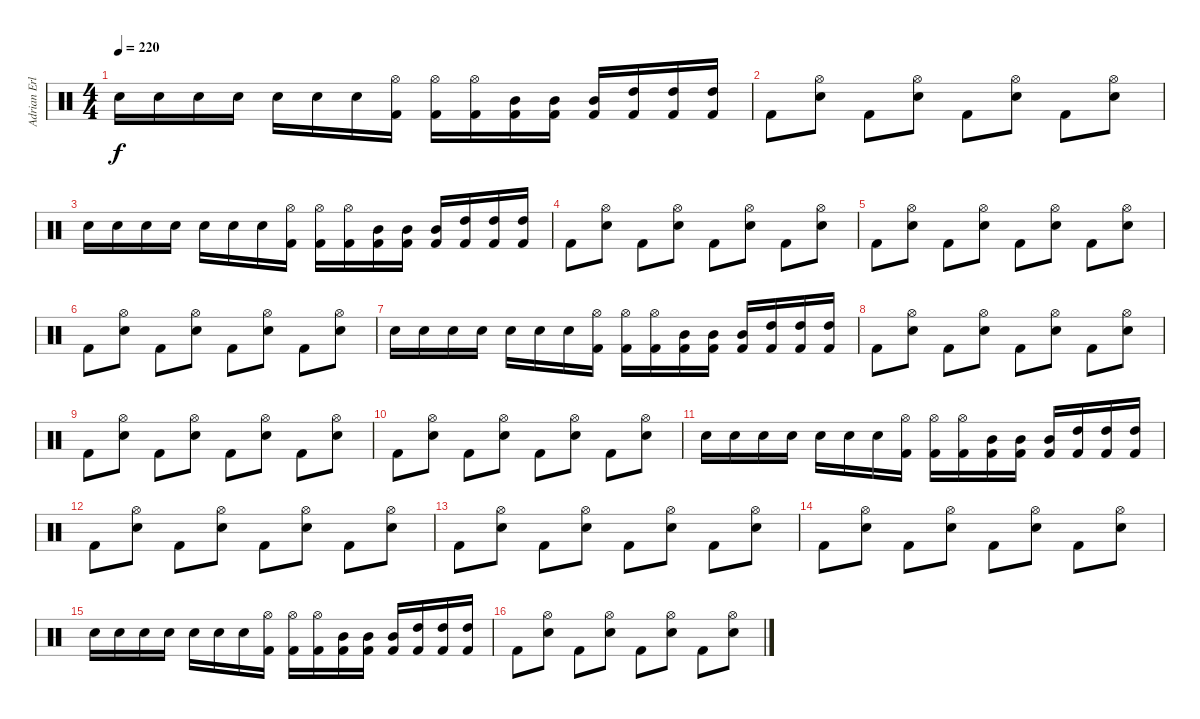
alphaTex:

\track ("Adrian Erlandsson" "Adrian Erl") {instrument percussion}
\staff {score}
\articulation defaults
\ts (4 4)
\tempo 220
\clef neutral
\ks c "Snare (hit) 2".16{dy f} "Snare (hit) 2".16 "Snare (hit) 2".16 "Snare (hit) 2".16 "Snare (hit) 2".16 "Snare (hit) 2".16 "Snare (hit) 2".16
("Hi-Hat (open)" "Kick (hit) 2").16 ("Hi-Hat (open)" "Kick (hit) 2").16 ("Hi-Hat (open)" "Kick (hit) 2").16 ("Mid Tom (hit)" "Kick (hit) 2").16 ("Mid Tom (hit)" "Kick (hit) 2").16 ("Mid Tom (hit)" "Kick (hit) 2").16 ("High Tom (hit)" "Kick (hit) 2").16 ("High Tom (hit)" "Kick (hit) 2").16 ("High Tom (hit)" "Kick (hit) 2").16 |
"Kick (hit) 2".8 ("Hi-Hat (open)" "Snare (hit) 2").8 "Kick (hit) 2".8 ("Hi-Hat (open)" "Snare (hit) 2").8 "Kick (hit) 2".8 ("Hi-Hat (open)" "Snare (hit) 2").8 "Kick (hit) 2".8 ("Hi-Hat (open)" "Snare (hit) 2").8 |
"Snare (hit) 2".16 "Snare (hit) 2".16 "Snare (hit) 2".16 "Snare (hit) 2".16 "Snare (hit) 2".16 "Snare (hit) 2".16 "Snare (hit) 2".16 ("Hi-Hat (open)" "Kick (hit) 2").16 ("Hi-Hat (open)" "Kick (hit) 2").16 ("Hi-Hat (open)" "Kick (hit) 2").16 ("Mid Tom (hit)" "Kick (hit) 2").16 ("Mid Tom (hit)" "Kick (hit) 2").16 ("Mid Tom (hit)" "Kick (hit) 2").16 ("High Tom (hit)" "Kick (hit) 2").16 ("High Tom (hit)" "Kick (hit) 2").16 ("High Tom (hit)" "Kick (hit) 2").16 |
"Kick (hit) 2".8 ("Hi-Hat (open)" "Snare (hit) 2").8 "Kick (hit) 2".8 ("Hi-Hat (open)" "Snare (hit) 2").8 "Kick (hit) 2".8 ("Hi-Hat (open)" "Snare (hit) 2").8 "Kick (hit) 2".8 ("Hi-Hat (open)" "Snare (hit) 2").8 |
"Kick (hit) 2".8 ("Hi-Hat (open)" "Snare (hit) 2").8 "Kick (hit) 2".8 ("Hi-Hat (open)" "Snare (hit) 2").8 "Kick (hit) 2".8 ("Hi-Hat (open)" "Snare (hit) 2").8 "Kick (hit) 2".8 ("Hi-Hat (open)" "Snare (hit) 2").8 |
"Kick (hit) 2".8 ("Hi-Hat (open)" "Snare (hit) 2").8 "Kick (hit) 2".8 ("Hi-Hat (open)" "Snare (hit) 2").8 "Kick (hit) 2".8 ("Hi-Hat (open)" "Snare (hit) 2").8 "Kick (hit) 2".8 ("Hi-Hat (open)" "Snare (hit) 2").8 |
"Snare (hit) 2".16 "Snare (hit) 2".16 "Snare (hit) 2".16 "Snare (hit) 2".16 "Snare (hit) 2".16 "Snare (hit) 2".16 "Snare (hit) 2".16 ("Hi-Hat (open)" "Kick (hit) 2").16 ("Hi-Hat (open)" "Kick (hit) 2").16 ("Hi-Hat (open)" "Kick (hit) 2").16 ("Mid Tom (hit)" "Kick (hit) 2").16 ("Mid Tom (hit)" "Kick (hit) 2").16 ("Mid Tom (hit)" "Kick (hit) 2").16 ("High Tom (hit)" "Kick (hit) 2").16 ("High Tom (hit)" "Kick (hit) 2").16 ("High Tom (hit)" "Kick (hit) 2").16 |
"Kick (hit) 2".8 ("Hi-Hat (open)" "Snare (hit) 2").8 "Kick (hit) 2".8 ("Hi-Hat (open)" "Snare (hit) 2").8 "Kick (hit) 2".8 ("Hi-Hat (open)" "Snare (hit) 2").8 "Kick (hit) 2".8 ("Hi-Hat (open)" "Snare (hit) 2").8 |
"Kick (hit) 2".8 ("Hi-Hat (open)" "Snare (hit) 2").8 "Kick (hit) 2".8 ("Hi-Hat (open)" "Snare (hit) 2").8 "Kick (hit) 2".8 ("Hi-Hat (open)" "Snare (hit) 2").8 "Kick (hit) 2".8 ("Hi-Hat (open)" "Snare (hit) 2").8 |
"Kick (hit) 2".8 ("Hi-Hat (open)" "Snare (hit) 2").8 "Kick (hit) 2".8 ("Hi-Hat (open)" "Snare (hit) 2").8 "Kick (hit) 2".8 ("Hi-Hat (open)" "Snare (hit) 2").8 "Kick (hit) 2".8 ("Hi-Hat (open)" "Snare (hit) 2").8 |
"Snare (hit) 2".16 "Snare (hit) 2".16 "Snare (hit) 2".16 "Snare (hit) 2".16 "Snare (hit) 2".16 "Snare (hit) 2".16 "Snare (hit) 2".16 ("Hi-Hat (open)" "Kick (hit) 2").16 ("Hi-Hat (open)" "Kick (hit) 2").16 ("Hi-Hat (open)" "Kick (hit) 2").16 ("Mid Tom (hit)" "Kick (hit) 2").16 ("Mid Tom (hit)" "Kick (hit) 2").16 ("Mid Tom (hit)" "Kick (hit) 2").16 ("High Tom (hit)" "Kick (hit) 2").16 ("High Tom (hit)" "Kick (hit) 2").16 ("High Tom (hit)" "Kick (hit) 2").16 |
"Kick (hit) 2".8 ("Hi-Hat (open)" "Snare (hit) 2").8 "Kick (hit) 2".8 ("Hi-Hat (open)" "Snare (hit) 2").8 "Kick (hit) 2".8 ("Hi-Hat (open)" "Snare (hit) 2").8 "Kick (hit) 2".8 ("Hi-Hat (open)" "Snare (hit) 2").8 |
"Kick (hit) 2".8 ("Hi-Hat (open)" "Snare (hit) 2").8 "Kick (hit) 2".8 ("Hi-Hat (open)" "Snare (hit) 2").8 "Kick (hit) 2".8 ("Hi-Hat (open)" "Snare (hit) 2").8 "Kick (hit) 2".8 ("Hi-Hat (open)" "Snare (hit) 2").8 |
"Kick (hit) 2".8 ("Hi-Hat (open)" "Snare (hit) 2").8 "Kick (hit) 2".8 ("Hi-Hat (open)" "Snare (hit) 2").8 "Kick (hit) 2".8 ("Hi-Hat (open)" "Snare (hit) 2").8 "Kick (hit) 2".8 ("Hi-Hat (open)" "Snare (hit) 2").8 |
"Snare (hit) 2".16 "Snare (hit) 2".16 "Snare (hit) 2".16 "Snare (hit) 2".16 "Snare (hit) 2".16 "Snare (hit) 2".16 "Snare (hit) 2".16 ("Hi-Hat (open)" "Kick (hit) 2").16 ("Hi-Hat (open)" "Kick (hit) 2").16 ("Hi-Hat (open)" "Kick (hit) 2").16 ("Mid Tom (hit)" "Kick (hit) 2").16 ("Mid Tom (hit)" "Kick (hit) 2").16 ("Mid Tom (hit)" "Kick (hit) 2").16 ("High Tom (hit)" "Kick (hit) 2").16 ("High Tom (hit)" "Kick (hit) 2").16 ("High Tom (hit)" "Kick (hit) 2").16 |
"Kick (hit) 2".8 ("Hi-Hat (open)" "Snare (hit) 2").8 "Kick (hit) 2".8 ("Hi-Hat (open)" "Snare (hit) 2").8 "Kick (hit) 2".8 ("Hi-Hat (open)" "Snare (hit) 2").8 "Kick (hit) 2".8 ("Hi-Hat (open)" "Snare (hit) 2").8
